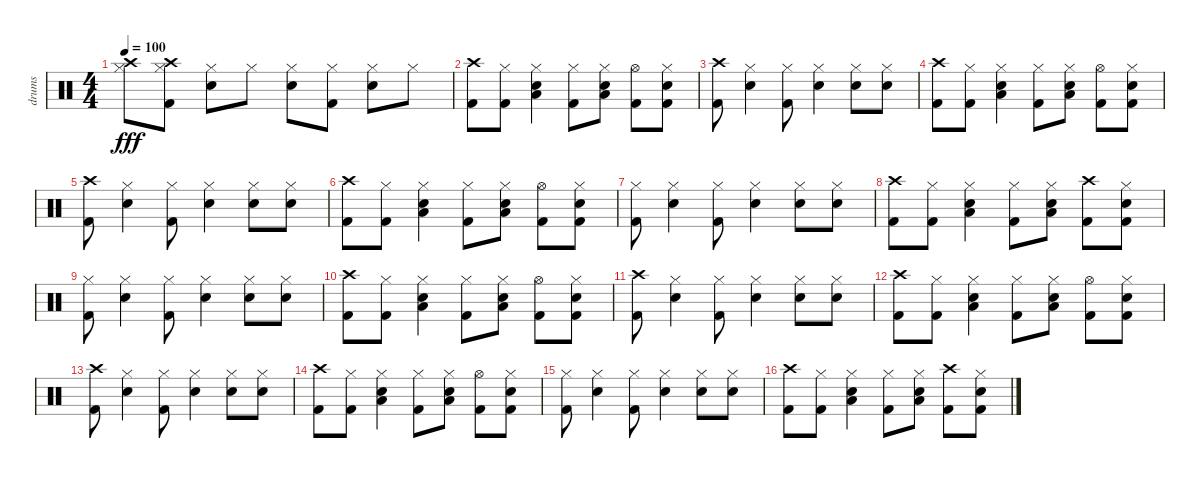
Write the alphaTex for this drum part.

\track ("drums" "drums") {instrument percussion}
\staff {score}
\articulation defaults
\ts (4 4)
\tempo 100
\clef neutral
\ks c
("Crash high (hit)" "Hi-Hat (closed)").8{dy fff} ("Crash high (hit)" "Hi-Hat (closed)" "Kick (hit) 2").8 ("Hi-Hat (closed)" "Electric Snare (hit)").8 "Hi-Hat (closed)".8 ("Hi-Hat (closed)" "Electric Snare (hit)").8 ("Hi-Hat (closed)" "Kick (hit) 2").8 ("Hi-Hat (closed)" "Electric Snare (hit)").8 "Hi-Hat (closed)".8 |
("Crash high (hit)" "Kick (hit) 2").8 ("Hi-Hat (closed)" "Kick (hit) 2").8 ("Hi-Hat (closed)" "Low Floor Tom (hit)" "Electric Snare (hit)").4 ("Hi-Hat (closed)" "Kick (hit) 2").8 ("Hi-Hat (closed)" "Low Floor Tom (hit)" "Electric Snare (hit)").8 ("Hi-Hat (open)" "Kick (hit) 2").8 ("Hi-Hat (closed)" "Electric Snare (hit)" "Kick (hit) 2").8 |
("Crash high (hit)" "Kick (hit) 2").8 ("Hi-Hat (closed)" "Electric Snare (hit)").4 ("Hi-Hat (closed)" "Kick (hit) 2").8 ("Hi-Hat (closed)" "Electric Snare (hit)").4 ("Hi-Hat (closed)" "Electric Snare (hit)").8 ("Hi-Hat (closed)" "Electric Snare (hit)").8 |
("Crash high (hit)" "Kick (hit) 2").8 ("Hi-Hat (closed)" "Kick (hit) 2").8 ("Hi-Hat (closed)" "Low Floor Tom (hit)" "Electric Snare (hit)").4 ("Hi-Hat (closed)" "Kick (hit) 2").8 ("Hi-Hat (closed)" "Low Floor Tom (hit)" "Electric Snare (hit)").8 ("Hi-Hat (open)" "Kick (hit) 2").8 ("Hi-Hat (closed)" "Electric Snare (hit)" "Kick (hit) 2").8 |
("Crash high (hit)" "Kick (hit) 2").8 ("Hi-Hat (closed)" "Electric Snare (hit)").4 ("Hi-Hat (closed)" "Kick (hit) 2").8 ("Hi-Hat (closed)" "Electric Snare (hit)").4 ("Hi-Hat (closed)" "Electric Snare (hit)").8 ("Hi-Hat (closed)" "Electric Snare (hit)").8 |
("Crash high (hit)" "Kick (hit) 2").8 ("Hi-Hat (closed)" "Kick (hit) 2").8 ("Hi-Hat (closed)" "Low Floor Tom (hit)" "Electric Snare (hit)").4 ("Hi-Hat (closed)" "Kick (hit) 2").8 ("Hi-Hat (closed)" "Low Floor Tom (hit)" "Electric Snare (hit)").8 ("Hi-Hat (open)" "Kick (hit) 2").8 ("Hi-Hat (closed)" "Electric Snare (hit)" "Kick (hit) 2").8 |
("Hi-Hat (closed)" "Kick (hit) 2").8 ("Hi-Hat (closed)" "Electric Snare (hit)").4 ("Hi-Hat (closed)" "Kick (hit) 2").8 ("Hi-Hat (closed)" "Electric Snare (hit)").4 ("Hi-Hat (closed)" "Electric Snare (hit)").8 ("Hi-Hat (closed)" "Electric Snare (hit)").8 |
("Crash high (hit)" "Kick (hit) 2").8 ("Hi-Hat (closed)" "Kick (hit) 2").8 ("Hi-Hat (closed)" "Low Floor Tom (hit)" "Electric Snare (hit)").4 ("Hi-Hat (closed)" "Kick (hit) 2").8 ("Hi-Hat (closed)" "Low Floor Tom (hit)" "Electric Snare (hit)").8 ("Crash high (hit)" "Kick (hit) 2").8 ("Hi-Hat (closed)" "Electric Snare (hit)" "Kick (hit) 2").8 |
("Hi-Hat (closed)" "Kick (hit) 2").8 ("Hi-Hat (closed)" "Electric Snare (hit)").4 ("Hi-Hat (closed)" "Kick (hit) 2").8 ("Hi-Hat (closed)" "Electric Snare (hit)").4 ("Hi-Hat (closed)" "Electric Snare (hit)").8 ("Hi-Hat (closed)" "Electric Snare (hit)").8 |
("Crash high (hit)" "Kick (hit) 2").8 ("Hi-Hat (closed)" "Kick (hit) 2").8 ("Hi-Hat (closed)" "Low Floor Tom (hit)" "Electric Snare (hit)").4 ("Hi-Hat (closed)" "Kick (hit) 2").8 ("Hi-Hat (closed)" "Low Floor Tom (hit)" "Electric Snare (hit)").8 ("Hi-Hat (open)" "Kick (hit) 2").8 ("Hi-Hat (closed)" "Electric Snare (hit)" "Kick (hit) 2").8 |
("Crash high (hit)" "Kick (hit) 2").8 ("Hi-Hat (closed)" "Electric Snare (hit)").4 ("Hi-Hat (closed)" "Kick (hit) 2").8 ("Hi-Hat (closed)" "Electric Snare (hit)").4 ("Hi-Hat (closed)" "Electric Snare (hit)").8 ("Hi-Hat (closed)" "Electric Snare (hit)").8 |
("Crash high (hit)" "Kick (hit) 2").8 ("Hi-Hat (closed)" "Kick (hit) 2").8 ("Hi-Hat (closed)" "Low Floor Tom (hit)" "Electric Snare (hit)").4 ("Hi-Hat (closed)" "Kick (hit) 2").8 ("Hi-Hat (closed)" "Low Floor Tom (hit)" "Electric Snare (hit)").8 ("Hi-Hat (open)" "Kick (hit) 2").8 ("Hi-Hat (closed)" "Electric Snare (hit)" "Kick (hit) 2").8 |
("Crash high (hit)" "Kick (hit) 2").8 ("Hi-Hat (closed)" "Electric Snare (hit)").4 ("Hi-Hat (closed)" "Kick (hit) 2").8 ("Hi-Hat (closed)" "Electric Snare (hit)").4 ("Hi-Hat (closed)" "Electric Snare (hit)").8 ("Hi-Hat (closed)" "Electric Snare (hit)").8 |
("Crash high (hit)" "Kick (hit) 2").8 ("Hi-Hat (closed)" "Kick (hit) 2").8 ("Hi-Hat (closed)" "Low Floor Tom (hit)" "Electric Snare (hit)").4 ("Hi-Hat (closed)" "Kick (hit) 2").8 ("Hi-Hat (closed)" "Low Floor Tom (hit)" "Electric Snare (hit)").8 ("Hi-Hat (open)" "Kick (hit) 2").8 ("Hi-Hat (closed)" "Electric Snare (hit)" "Kick (hit) 2").8 |
("Hi-Hat (closed)" "Kick (hit) 2").8 ("Hi-Hat (closed)" "Electric Snare (hit)").4 ("Hi-Hat (closed)" "Kick (hit) 2").8 ("Hi-Hat (closed)" "Electric Snare (hit)").4 ("Hi-Hat (closed)" "Electric Snare (hit)").8 ("Hi-Hat (closed)" "Electric Snare (hit)").8 |
("Crash high (hit)" "Kick (hit) 2").8 ("Hi-Hat (closed)" "Kick (hit) 2").8 ("Hi-Hat (closed)" "Low Floor Tom (hit)" "Electric Snare (hit)").4 ("Hi-Hat (closed)" "Kick (hit) 2").8 ("Hi-Hat (closed)" "Low Floor Tom (hit)" "Electric Snare (hit)").8 ("Crash high (hit)" "Kick (hit) 2").8 ("Hi-Hat (closed)" "Electric Snare (hit)" "Kick (hit) 2").8
